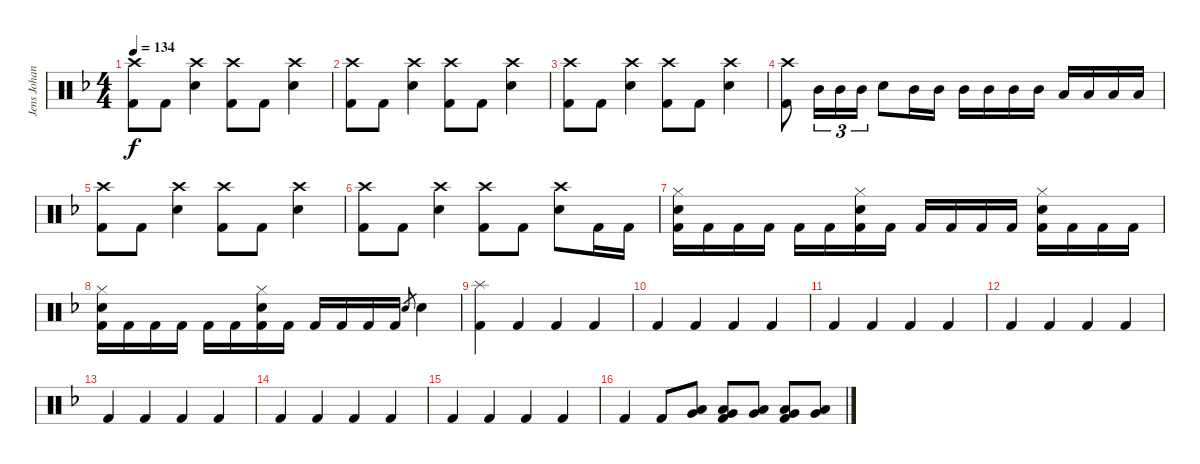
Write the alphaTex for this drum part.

\track ("Jens Johansson" "Jens Johan") {instrument percussion}
\staff {score}
\articulation defaults
\ts (4 4)
\tempo 134
\clef neutral
\ks f
("Crash high (hit)" "Kick (hit) 2").8{dy f} "Kick (hit) 2".8 ("Crash high (hit)" "Electric Snare (hit)").4 ("Crash high (hit)" "Kick (hit) 2").8 "Kick (hit) 2".8 ("Crash high (hit)" "Electric Snare (hit)").4 |
("Crash high (hit)" "Kick (hit) 2").8 "Kick (hit) 2".8 ("Crash high (hit)" "Electric Snare (hit)").4 ("Crash high (hit)" "Kick (hit) 2").8 "Kick (hit) 2".8 ("Crash high (hit)" "Electric Snare (hit)").4 |
("Crash high (hit)" "Kick (hit) 2").8 "Kick (hit) 2".8 ("Crash high (hit)" "Electric Snare (hit)").4 ("Crash high (hit)" "Kick (hit) 2").8 "Kick (hit) 2".8 ("Crash high (hit)" "Electric Snare (hit)").4 |
("Crash high (hit)" "Kick (hit) 2").8 "Mid Tom (hit)".16{tu (3 2)} "Mid Tom (hit)".16{tu (3 2)} "Mid Tom (hit)".16{tu (3 2)} "Electric Snare (hit)".8 "Mid Tom (hit)".16 "Mid Tom (hit)".16 "Mid Tom (hit)".16 "Mid Tom (hit)".16 "Mid Tom (hit)".16 "Mid Tom (hit)".16 "Low Tom (hit)".16 "Low Tom (hit)".16 "Low Tom (hit)".16 "Low Tom (hit)".16 |
("Crash high (hit)" "Kick (hit) 2").8 "Kick (hit) 2".8 ("Crash high (hit)" "Electric Snare (hit)").4 ("Crash high (hit)" "Kick (hit) 2").8 "Kick (hit) 2".8 ("Crash high (hit)" "Electric Snare (hit)").4 |
("Crash high (hit)" "Kick (hit) 2").8 "Kick (hit) 2".8 ("Crash high (hit)" "Electric Snare (hit)").4 ("Crash high (hit)" "Kick (hit) 2").8 "Kick (hit) 2".8 ("Crash high (hit)" "Electric Snare (hit)").8 "Kick (hit) 2".16 "Kick (hit) 2".16 |
("Electric Snare (hit)" "Hi-Hat (closed)" "Kick (hit) 2").16 "Kick (hit) 2".16 "Kick (hit) 2".16 "Kick (hit) 2".16 "Kick (hit) 2".16 "Kick (hit) 2".16 ("Electric Snare (hit)" "Hi-Hat (closed)" "Kick (hit) 2").16 "Kick (hit) 2".16 "Kick (hit) 2".16 "Kick (hit) 2".16 "Kick (hit) 2".16 "Kick (hit) 2".16 ("Electric Snare (hit)" "Hi-Hat (closed)" "Kick (hit) 2").16 "Kick (hit) 2".16 "Kick (hit) 2".16 "Kick (hit) 2".16 |
("Electric Snare (hit)" "Hi-Hat (closed)" "Kick (hit) 2").16 "Kick (hit) 2".16 "Kick (hit) 2".16 "Kick (hit) 2".16 "Kick (hit) 2".16 "Kick (hit) 2".16 ("Electric Snare (hit)" "Hi-Hat (closed)" "Kick (hit) 2").16 "Kick (hit) 2".16 "Kick (hit) 2".16 "Kick (hit) 2".16 "Kick (hit) 2".16 "Kick (hit) 2".16 "Electric Snare (hit)".8{gr} "Electric Snare (hit)".4 |
("Splash (hit)" "Kick (hit) 2").4 "Kick (hit) 2".4 "Kick (hit) 2".4 "Kick (hit) 2".4 |
"Kick (hit) 2".4 "Kick (hit) 2".4 "Kick (hit) 2".4 "Kick (hit) 2".4 |
"Kick (hit) 2".4 "Kick (hit) 2".4 "Kick (hit) 2".4 "Kick (hit) 2".4 |
"Kick (hit) 2".4 "Kick (hit) 2".4 "Kick (hit) 2".4 "Kick (hit) 2".4 |
"Kick (hit) 2".4 "Kick (hit) 2".4 "Kick (hit) 2".4 "Kick (hit) 2".4 |
"Kick (hit) 2".4 "Kick (hit) 2".4 "Kick (hit) 2".4 "Kick (hit) 2".4 |
"Kick (hit) 2".4 "Kick (hit) 2".4 "Kick (hit) 2".4 "Kick (hit) 2".4 |
"Kick (hit) 2".4 "Kick (hit) 2".8 ("Low Tom (hit)" "Very Low Tom (hit)").8 ("Low Tom (hit)" "Very Low Tom (hit)" "Kick (hit) 2").8 ("Low Tom (hit)" "Very Low Tom (hit)").8 ("Low Tom (hit)" "Very Low Tom (hit)" "Kick (hit) 2").8 ("Low Tom (hit)" "Very Low Tom (hit)").8
